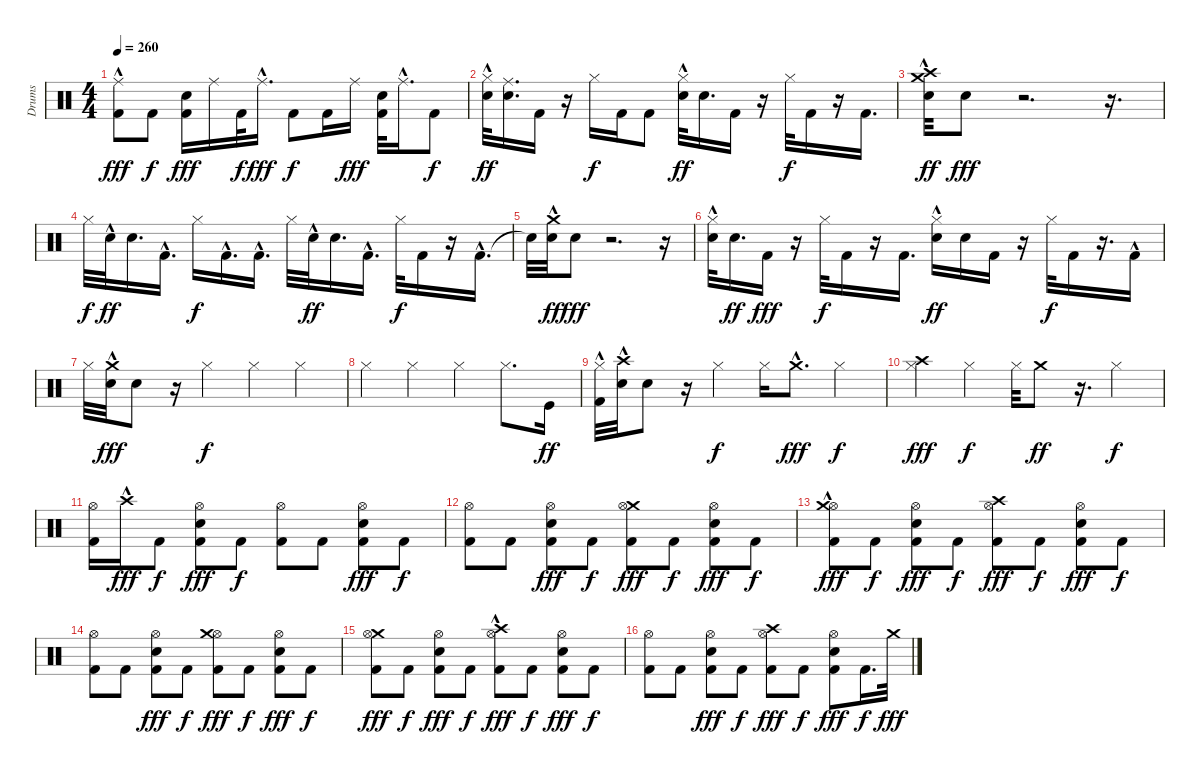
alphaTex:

\track ("Drums" "Drums") {instrument percussion}
\staff {score}
\articulation defaults
\ts (4 4)
\tempo 260
\clef neutral
\ks c
("Kick (hit) 2" "Ride (middle)"{hac}).8{dy fff} "Kick (hit) 2".8{dy f} ("Snare (hit) 2" "Kick (hit) 2").16{dy fff} "Ride (middle)".16 "Kick (hit) 2".32{dy f} "Ride (middle)"{hac}.16{d dy fff} "Kick (hit) 2".8{dy f} "Kick (hit) 2".16 "Ride (middle)".16{dy fff} ("Snare (hit) 2" "Kick (hit) 2").32 "Ride (middle)"{hac}.16{d} "Kick (hit) 2".8{dy f} |
("Hi-Hat (closed)" "Electric Snare (hit)"{hac}).32{dy ff} ("Ride (middle)" "Snare (hit) 2").16{d} "Kick (hit) 2".16 r.16 "Hi-Hat (closed)".16{dy f} "Kick (hit) 2".16 "Kick (hit) 2".8 ("Hi-Hat (closed)" "Electric Snare (hit)"{hac}).32{dy ff} "Snare (hit) 2".16{d} "Kick (hit) 2".16 r.16 "Hi-Hat (closed)".32{dy f} "Kick (hit) 2".16 r.16 "Kick (hit) 2".16{d} |
("Crash high (hit)"{hac} "Crash medium (hit)" "Electric Snare (hit)").32{dy ff} "Snare (hit) 2".8{dy fff} r.2{d} r.16{d} |
"Hi-Hat (closed)".32{dy f} "Electric Snare (hit)"{hac}.32{dy ff} "Snare (hit) 2".16{d} "Kick (hit) 2"{hac}.16{d} "Hi-Hat (closed)".16{dy f} "Kick (hit) 2"{hac}.16{d} "Kick (hit) 2"{hac}.16{d} "Hi-Hat (closed)".32 "Electric Snare (hit)"{hac}.32{dy ff} "Snare (hit) 2".16{d} "Kick (hit) 2"{hac}.16{d} "Hi-Hat (closed)".32{dy f} "Kick (hit) 2".16 r.16 "Kick (hit) 2"{hac}.16{d} |
"Snare (hit)"{t}.32 ("Crash medium (hit)" "Electric Snare (hit)"{hac}).32{dy ff} "Snare (hit) 2".8{dy fff} r.2{d} r.16 |
("Electric Snare (hit)"{hac} "Hi-Hat (closed)").32 "Snare (hit) 2".16{d dy ff} "Kick (hit) 2".16{dy fff} r.16 "Hi-Hat (closed)".32{dy f} "Kick (hit) 2".16 r.16 "Kick (hit) 2".16{d} ("Hi-Hat (closed)" "Electric Snare (hit)"{hac}).16{dy ff} "Snare (hit) 2".16 "Kick (hit) 2".16 r.16 "Hi-Hat (closed)".32{dy f} "Kick (hit) 2".16 r.16{d} "Kick (hit) 2"{hac}.16 |
"Hi-Hat (closed)".32 ("Electric Snare (hit)"{hac} "Crash medium (hit)"{hac}).32{dy fff} "Snare (hit) 2".8 r.16 "Hi-Hat (closed)".4{dy f} "Hi-Hat (closed)".4 "Hi-Hat (closed)".4 |
"Hi-Hat (closed)".4 "Hi-Hat (closed)".4 "Hi-Hat (closed)".4 "Hi-Hat (closed)".8{d} "Kick (hit)".16{dy ff} |
("Hi-Hat (closed)" "Kick (hit) 2"{hac}).32 ("Electric Snare (hit)" "Crash high (hit)"{hac}).32 "Snare (hit) 2".8 r.16 "Hi-Hat (closed)".4{dy f} "Hi-Hat (closed)".16 "Crash medium (hit)"{hac}.8{d dy fff} "Hi-Hat (closed)".4{dy f} |
("Hi-Hat (closed)" "Crash high (hit)").4{dy fff} "Hi-Hat (closed)".4{dy f} "Hi-Hat (closed)".32 "Crash medium (hit)".8{dy ff} r.16{d} "Hi-Hat (closed)".4{dy f} |
("Hi-Hat (open)" "Kick (hit) 2").16 "Crash high (hit)"{hac}.16{dy fff} "Kick (hit) 2".8{dy f} ("Hi-Hat (open)" "Snare (hit) 2" "Kick (hit) 2").8{dy fff} "Kick (hit) 2".8{dy f} ("Hi-Hat (open)" "Kick (hit) 2").8 "Kick (hit) 2".8 ("Hi-Hat (open)" "Snare (hit) 2" "Kick (hit) 2").8{dy fff} "Kick (hit) 2".8{dy f} |
("Hi-Hat (open)" "Kick (hit) 2").8 "Kick (hit) 2".8 ("Hi-Hat (open)" "Snare (hit) 2" "Kick (hit) 2").8{dy fff} "Kick (hit) 2".8{dy f} ("Crash medium (hit)" "Hi-Hat (open)" "Kick (hit) 2").8{dy fff} "Kick (hit) 2".8{dy f} ("Hi-Hat (open)" "Snare (hit) 2" "Kick (hit) 2").8{dy fff} "Kick (hit) 2".8{dy f} |
("Hi-Hat (open)" "Kick (hit) 2" "Crash medium (hit)"{hac}).8{dy fff} "Kick (hit) 2".8{dy f} ("Hi-Hat (open)" "Snare (hit) 2" "Kick (hit) 2").8{dy fff} "Kick (hit) 2".8{dy f} ("Crash high (hit)" "Hi-Hat (open)" "Kick (hit) 2").8{dy fff} "Kick (hit) 2".8{dy f} ("Hi-Hat (open)" "Snare (hit) 2" "Kick (hit) 2").8{dy fff} "Kick (hit) 2".8{dy f} |
("Hi-Hat (open)" "Kick (hit) 2").8 "Kick (hit) 2".8 ("Hi-Hat (open)" "Snare (hit) 2" "Kick (hit) 2").8{dy fff} "Kick (hit) 2".8{dy f} ("Hi-Hat (open)" "Kick (hit) 2" "Crash medium (hit)").8{dy fff} "Kick (hit) 2".8{dy f} ("Hi-Hat (open)" "Snare (hit) 2" "Kick (hit) 2").8{dy fff} "Kick (hit) 2".8{dy f} |
("Crash medium (hit)" "Hi-Hat (open)" "Kick (hit) 2").8{dy fff} "Kick (hit) 2".8{dy f} ("Hi-Hat (open)" "Snare (hit) 2" "Kick (hit) 2").8{dy fff} "Kick (hit) 2".8{dy f} ("Hi-Hat (open)" "Kick (hit) 2" "Crash high (hit)"{hac}).8{dy fff} "Kick (hit) 2".8{dy f} ("Hi-Hat (open)" "Snare (hit) 2" "Kick (hit) 2").8{dy fff} "Kick (hit) 2".8{dy f} |
("Hi-Hat (open)" "Kick (hit) 2").8 "Kick (hit) 2".8 ("Hi-Hat (open)" "Snare (hit) 2" "Kick (hit) 2").8{dy fff} "Kick (hit) 2".8{dy f} ("Hi-Hat (open)" "Kick (hit) 2" "Crash high (hit)").8{dy fff} "Kick (hit) 2".8{dy f} ("Hi-Hat (open)" "Snare (hit) 2" "Kick (hit) 2").8{dy fff} "Kick (hit) 2".16{d dy f} "Crash medium (hit)".32{dy fff}
